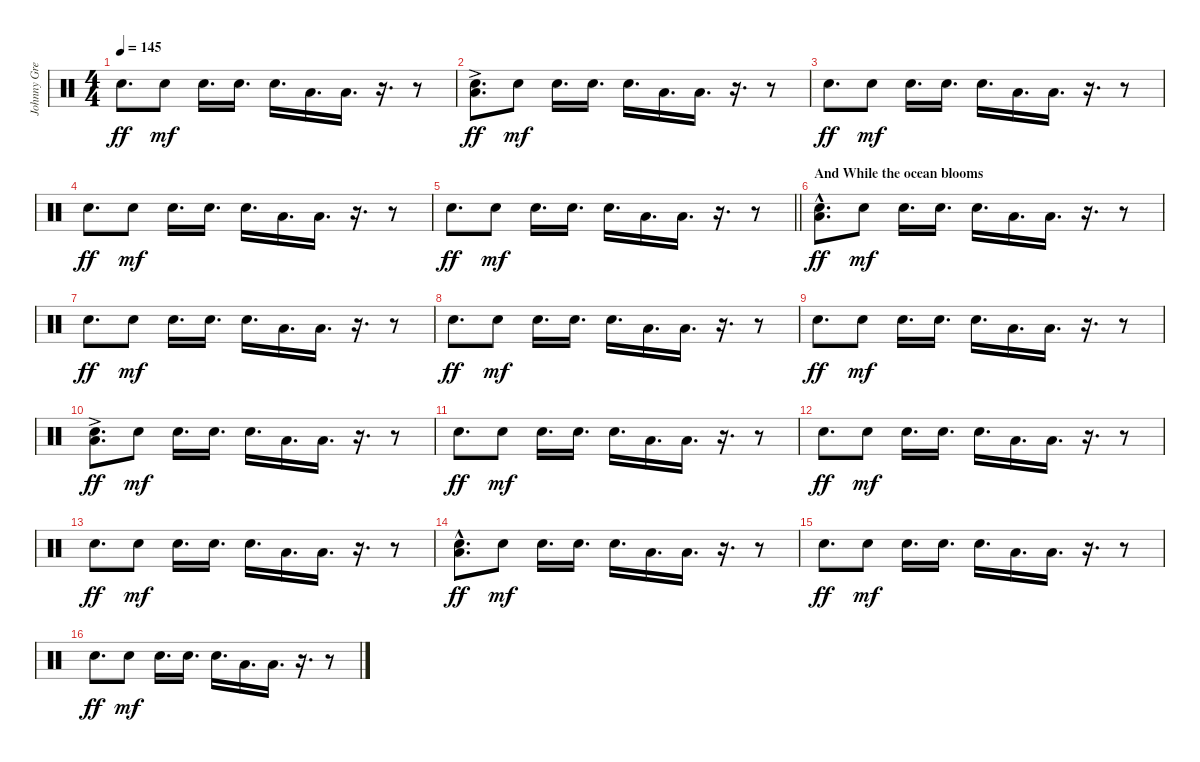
\track ("Johnny Greenwood" "Johnny Gre") {instrument percussion}
\staff {score}
\articulation defaults
\ts (4 4)
\tempo 145
\clef neutral
\ks c "Snare (hit) 2".8{d dy ff} "Snare (hit) 2".8{dy mf} "Snare (hit) 2".16{d} "Snare (hit) 2".16{d} "Snare (hit) 2".16{d} "Low Floor Tom (hit)".16{d} "Low Floor Tom (hit)".16{d}
r.16{d} r.8 |
("Snare (hit) 2" "Low Floor Tom (hit)"{ac}).8{d dy ff} "Snare (hit) 2".8{dy mf} "Snare (hit) 2".16{d} "Snare (hit) 2".16{d} "Snare (hit) 2".16{d} "Low Floor Tom (hit)".16{d} "Low Floor Tom (hit)".16{d} r.16{d} r.8 |
"Snare (hit) 2".8{d dy ff} "Snare (hit) 2".8{dy mf} "Snare (hit) 2".16{d} "Snare (hit) 2".16{d} "Snare (hit) 2".16{d} "Low Floor Tom (hit)".16{d} "Low Floor Tom (hit)".16{d} r.16{d} r.8 |
"Snare (hit) 2".8{d dy ff} "Snare (hit) 2".8{dy mf} "Snare (hit) 2".16{d} "Snare (hit) 2".16{d} "Snare (hit) 2".16{d} "Low Floor Tom (hit)".16{d} "Low Floor Tom (hit)".16{d} r.16{d} r.8 |
\barLineRight lightlight "Snare (hit) 2".8{d dy ff} "Snare (hit) 2".8{dy mf} "Snare (hit) 2".16{d} "Snare (hit) 2".16{d} "Snare (hit) 2".16{d} "Low Floor Tom (hit)".16{d} "Low Floor Tom (hit)".16{d}
r.16{d} r.8 |
\section ("" "And While the ocean blooms")
("Snare (hit) 2" "Low Floor Tom (hit)"{hac}).8{d dy ff} "Snare (hit) 2".8{dy mf} "Snare (hit) 2".16{d} "Snare (hit) 2".16{d} "Snare (hit) 2".16{d} "Low Floor Tom (hit)".16{d} "Low Floor Tom (hit)".16{d} r.16{d} r.8 |
"Snare (hit) 2".8{d dy ff} "Snare (hit) 2".8{dy mf} "Snare (hit) 2".16{d} "Snare (hit) 2".16{d} "Snare (hit) 2".16{d} "Low Floor Tom (hit)".16{d} "Low Floor Tom (hit)".16{d} r.16{d} r.8 |
"Snare (hit) 2".8{d dy ff} "Snare (hit) 2".8{dy mf} "Snare (hit) 2".16{d} "Snare (hit) 2".16{d} "Snare (hit) 2".16{d} "Low Floor Tom (hit)".16{d} "Low Floor Tom (hit)".16{d} r.16{d} r.8 |
"Snare (hit) 2".8{d dy ff} "Snare (hit) 2".8{dy mf} "Snare (hit) 2".16{d} "Snare (hit) 2".16{d} "Snare (hit) 2".16{d} "Low Floor Tom (hit)".16{d} "Low Floor Tom (hit)".16{d} r.16{d} r.8 |
("Snare (hit) 2" "Low Floor Tom (hit)"{ac}).8{d dy ff} "Snare (hit) 2".8{dy mf} "Snare (hit) 2".16{d} "Snare (hit) 2".16{d} "Snare (hit) 2".16{d} "Low Floor Tom (hit)".16{d} "Low Floor Tom (hit)".16{d} r.16{d} r.8 |
"Snare (hit) 2".8{d dy ff} "Snare (hit) 2".8{dy mf} "Snare (hit) 2".16{d} "Snare (hit) 2".16{d} "Snare (hit) 2".16{d} "Low Floor Tom (hit)".16{d} "Low Floor Tom (hit)".16{d} r.16{d} r.8 |
"Snare (hit) 2".8{d dy ff} "Snare (hit) 2".8{dy mf} "Snare (hit) 2".16{d} "Snare (hit) 2".16{d} "Snare (hit) 2".16{d} "Low Floor Tom (hit)".16{d} "Low Floor Tom (hit)".16{d} r.16{d} r.8 |
"Snare (hit) 2".8{d dy ff} "Snare (hit) 2".8{dy mf} "Snare (hit) 2".16{d} "Snare (hit) 2".16{d} "Snare (hit) 2".16{d} "Low Floor Tom (hit)".16{d} "Low Floor Tom (hit)".16{d} r.16{d} r.8 |
("Snare (hit) 2" "Low Floor Tom (hit)"{hac}).8{d dy ff} "Snare (hit) 2".8{dy mf} "Snare (hit) 2".16{d} "Snare (hit) 2".16{d} "Snare (hit) 2".16{d} "Low Floor Tom (hit)".16{d} "Low Floor Tom (hit)".16{d} r.16{d} r.8 |
"Snare (hit) 2".8{d dy ff} "Snare (hit) 2".8{dy mf} "Snare (hit) 2".16{d} "Snare (hit) 2".16{d} "Snare (hit) 2".16{d} "Low Floor Tom (hit)".16{d} "Low Floor Tom (hit)".16{d} r.16{d} r.8 |
"Snare (hit) 2".8{d dy ff} "Snare (hit) 2".8{dy mf} "Snare (hit) 2".16{d} "Snare (hit) 2".16{d} "Snare (hit) 2".16{d} "Low Floor Tom (hit)".16{d} "Low Floor Tom (hit)".16{d} r.16{d} r.8
